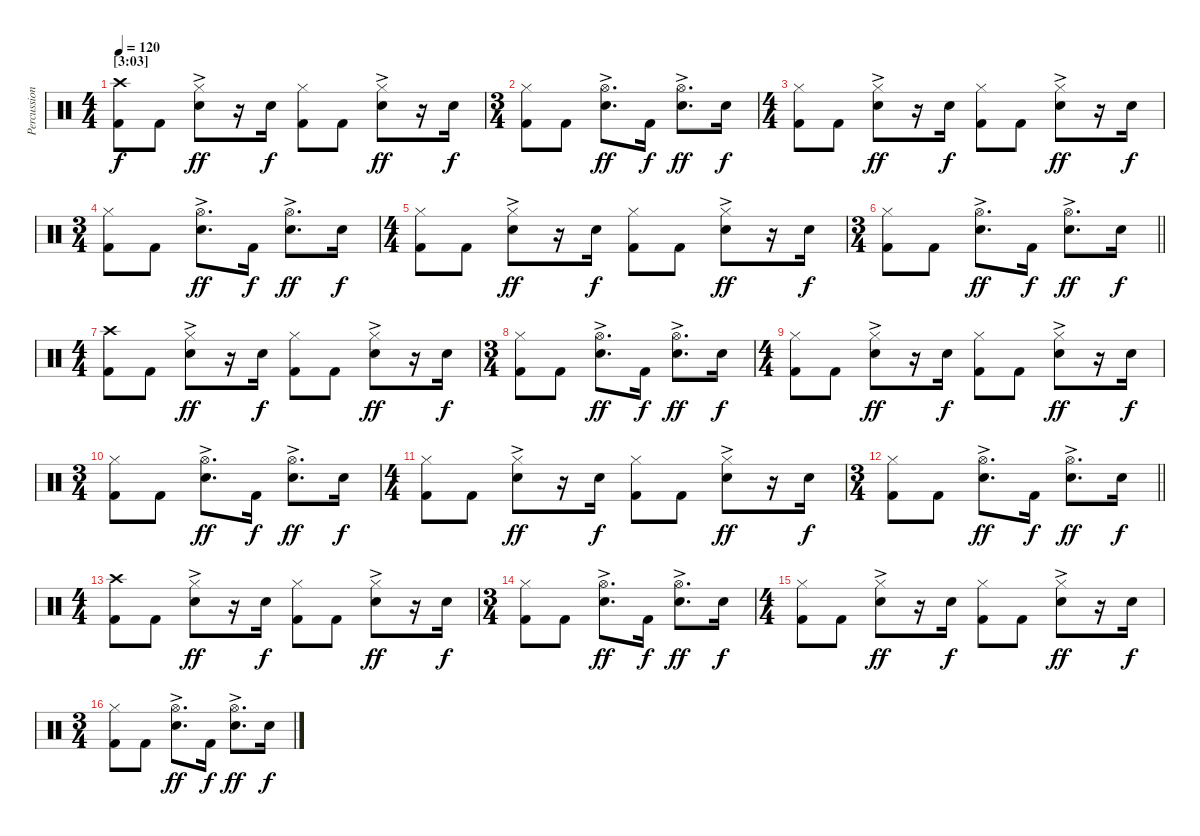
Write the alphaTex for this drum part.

\track ("Percussion" "Percussion") {instrument percussion}
\staff {score}
\articulation defaults
\ts (4 4)
\section ("" "[3:03]")
\tempo 120
\clef neutral
\ks c
("Crash high (hit)" "Kick (hit) 2").8{dy f} "Kick (hit) 2".8 ("Hi-Hat (closed)" "Electric Snare (hit)"{ac}).8{dy ff} r.16 "Electric Snare (hit)".16{dy f} ("Hi-Hat (closed)" "Kick (hit) 2").8 "Kick (hit) 2".8 ("Hi-Hat (closed)" "Electric Snare (hit)"{ac}).8{dy ff} r.16 "Electric Snare (hit)".16{dy f} |
\ts (3 4)
("Hi-Hat (closed)" "Kick (hit) 2").8 "Kick (hit) 2".8 ("Hi-Hat (open)" "Electric Snare (hit)"{ac}).8{d dy ff} "Kick (hit) 2".16{dy f} ("Hi-Hat (open)" "Electric Snare (hit)"{ac}).8{d dy ff} "Electric Snare (hit)".16{dy f} |
\ts (4 4)
("Hi-Hat (closed)" "Kick (hit) 2").8 "Kick (hit) 2".8 ("Hi-Hat (closed)" "Electric Snare (hit)"{ac}).8{dy ff} r.16 "Electric Snare (hit)".16{dy f} ("Hi-Hat (closed)" "Kick (hit) 2").8 "Kick (hit) 2".8 ("Hi-Hat (closed)" "Electric Snare (hit)"{ac}).8{dy ff} r.16 "Electric Snare (hit)".16{dy f} |
\ts (3 4)
("Hi-Hat (closed)" "Kick (hit) 2").8 "Kick (hit) 2".8 ("Hi-Hat (open)" "Electric Snare (hit)"{ac}).8{d dy ff} "Kick (hit) 2".16{dy f} ("Hi-Hat (open)" "Electric Snare (hit)"{ac}).8{d dy ff} "Electric Snare (hit)".16{dy f} |
\ts (4 4)
("Hi-Hat (closed)" "Kick (hit) 2").8 "Kick (hit) 2".8 ("Hi-Hat (closed)" "Electric Snare (hit)"{ac}).8{dy ff} r.16 "Electric Snare (hit)".16{dy f} ("Hi-Hat (closed)" "Kick (hit) 2").8 "Kick (hit) 2".8 ("Hi-Hat (closed)" "Electric Snare (hit)"{ac}).8{dy ff} r.16 "Electric Snare (hit)".16{dy f} |
\ts (3 4)
\barLineRight lightlight
("Hi-Hat (closed)" "Kick (hit) 2").8 "Kick (hit) 2".8 ("Hi-Hat (open)" "Electric Snare (hit)"{ac}).8{d dy ff} "Kick (hit) 2".16{dy f} ("Hi-Hat (open)" "Electric Snare (hit)"{ac}).8{d dy ff} "Electric Snare (hit)".16{dy f} |
\ts (4 4)
("Crash high (hit)" "Kick (hit) 2").8 "Kick (hit) 2".8 ("Hi-Hat (closed)" "Electric Snare (hit)"{ac}).8{dy ff} r.16 "Electric Snare (hit)".16{dy f} ("Hi-Hat (closed)" "Kick (hit) 2").8 "Kick (hit) 2".8 ("Hi-Hat (closed)" "Electric Snare (hit)"{ac}).8{dy ff} r.16 "Electric Snare (hit)".16{dy f} |
\ts (3 4)
("Hi-Hat (closed)" "Kick (hit) 2").8 "Kick (hit) 2".8 ("Hi-Hat (open)" "Electric Snare (hit)"{ac}).8{d dy ff} "Kick (hit) 2".16{dy f} ("Hi-Hat (open)" "Electric Snare (hit)"{ac}).8{d dy ff} "Electric Snare (hit)".16{dy f} |
\ts (4 4)
("Hi-Hat (closed)" "Kick (hit) 2").8 "Kick (hit) 2".8 ("Hi-Hat (closed)" "Electric Snare (hit)"{ac}).8{dy ff} r.16 "Electric Snare (hit)".16{dy f} ("Hi-Hat (closed)" "Kick (hit) 2").8 "Kick (hit) 2".8 ("Hi-Hat (closed)" "Electric Snare (hit)"{ac}).8{dy ff} r.16 "Electric Snare (hit)".16{dy f} |
\ts (3 4)
("Hi-Hat (closed)" "Kick (hit) 2").8 "Kick (hit) 2".8 ("Hi-Hat (open)" "Electric Snare (hit)"{ac}).8{d dy ff} "Kick (hit) 2".16{dy f} ("Hi-Hat (open)" "Electric Snare (hit)"{ac}).8{d dy ff} "Electric Snare (hit)".16{dy f} |
\ts (4 4)
("Hi-Hat (closed)" "Kick (hit) 2").8 "Kick (hit) 2".8 ("Hi-Hat (closed)" "Electric Snare (hit)"{ac}).8{dy ff} r.16 "Electric Snare (hit)".16{dy f} ("Hi-Hat (closed)" "Kick (hit) 2").8 "Kick (hit) 2".8 ("Hi-Hat (closed)" "Electric Snare (hit)"{ac}).8{dy ff} r.16 "Electric Snare (hit)".16{dy f} |
\ts (3 4)
\barLineRight lightlight
("Hi-Hat (closed)" "Kick (hit) 2").8 "Kick (hit) 2".8 ("Hi-Hat (open)" "Electric Snare (hit)"{ac}).8{d dy ff} "Kick (hit) 2".16{dy f} ("Hi-Hat (open)" "Electric Snare (hit)"{ac}).8{d dy ff} "Electric Snare (hit)".16{dy f} |
\ts (4 4)
("Crash high (hit)" "Kick (hit) 2").8 "Kick (hit) 2".8 ("Hi-Hat (closed)" "Electric Snare (hit)"{ac}).8{dy ff} r.16 "Electric Snare (hit)".16{dy f} ("Hi-Hat (closed)" "Kick (hit) 2").8 "Kick (hit) 2".8 ("Hi-Hat (closed)" "Electric Snare (hit)"{ac}).8{dy ff} r.16 "Electric Snare (hit)".16{dy f} |
\ts (3 4)
("Hi-Hat (closed)" "Kick (hit) 2").8 "Kick (hit) 2".8 ("Hi-Hat (open)" "Electric Snare (hit)"{ac}).8{d dy ff} "Kick (hit) 2".16{dy f} ("Hi-Hat (open)" "Electric Snare (hit)"{ac}).8{d dy ff} "Electric Snare (hit)".16{dy f} |
\ts (4 4)
("Hi-Hat (closed)" "Kick (hit) 2").8 "Kick (hit) 2".8 ("Hi-Hat (closed)" "Electric Snare (hit)"{ac}).8{dy ff} r.16 "Electric Snare (hit)".16{dy f} ("Hi-Hat (closed)" "Kick (hit) 2").8 "Kick (hit) 2".8 ("Hi-Hat (closed)" "Electric Snare (hit)"{ac}).8{dy ff} r.16 "Electric Snare (hit)".16{dy f} |
\ts (3 4)
("Hi-Hat (closed)" "Kick (hit) 2").8 "Kick (hit) 2".8 ("Hi-Hat (open)" "Electric Snare (hit)"{ac}).8{d dy ff} "Kick (hit) 2".16{dy f} ("Hi-Hat (open)" "Electric Snare (hit)"{ac}).8{d dy ff} "Electric Snare (hit)".16{dy f}
